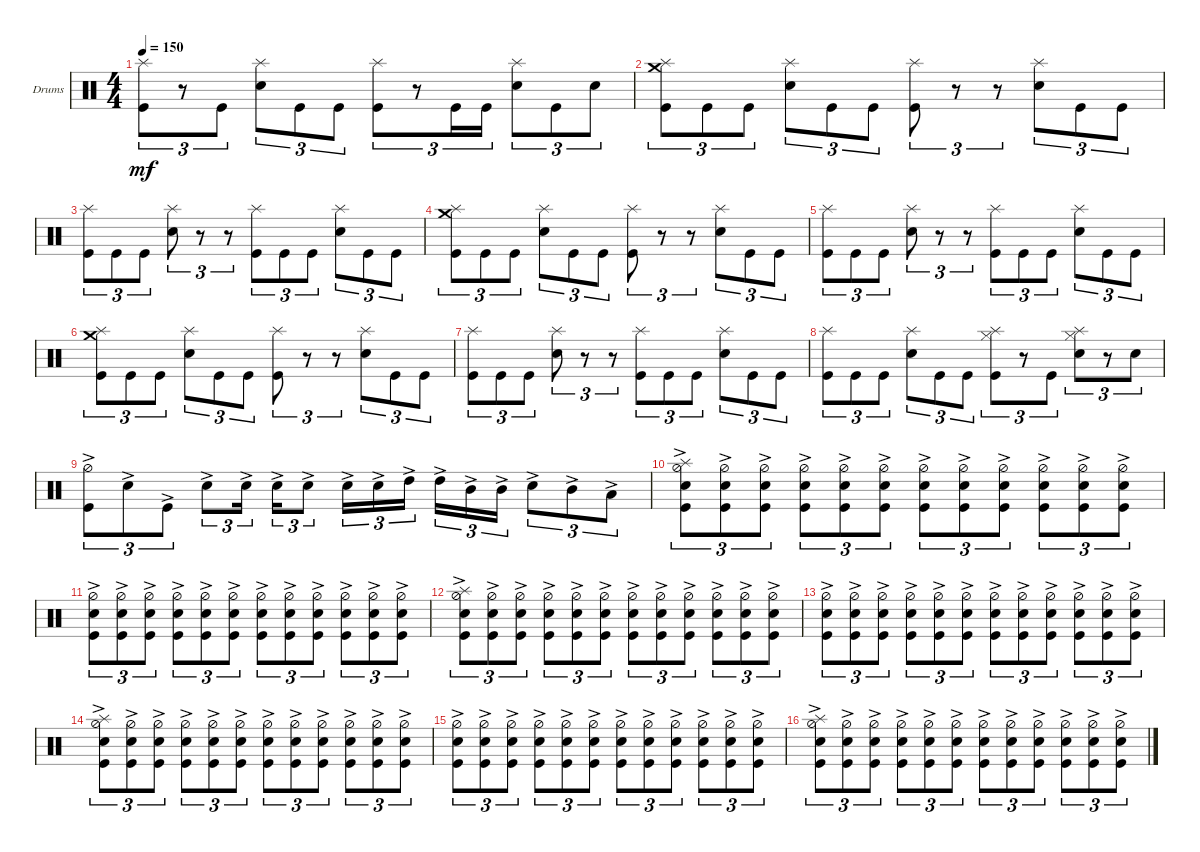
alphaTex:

\bracketExtendMode groupsimilarinstruments
\firstSystemTrackNameOrientation horizontal
\otherSystemsTrackNameOrientation horizontal
\track ("Drumkit" "Drums") {instrument percussion}
\staff {score}
\articulation defaults
\ts (4 4)
\tempo 150
\clef neutral
\ks c
("Kick (hit)" "Splash (hit)").8{tu (3 2) dy mf} r.8{tu (3 2)} "Kick (hit)".8{tu (3 2)} ("Snare (hit) 2" "Splash (hit)").8{tu (3 2)} "Kick (hit)".8{tu (3 2)} "Kick (hit)".8{tu (3 2)} ("Kick (hit)" "Splash (hit)").8{tu (3 2)} r.8{tu (3 2)} "Kick (hit)".16{tu (3 2)} "Kick (hit)".16{tu (3 2)} ("Snare (hit) 2" "Splash (hit)").8{tu (3 2)} "Kick (hit)".8{tu (3 2)} "Snare (hit) 2".8{tu (3 2)} |
("Kick (hit)" "Splash (hit)" "Crash medium (hit)").8{tu (3 2)} "Kick (hit)".8{tu (3 2)} "Kick (hit)".8{tu (3 2)} ("Snare (hit) 2" "Splash (hit)").8{tu (3 2)} "Kick (hit)".8{tu (3 2)} "Kick (hit)".8{tu (3 2)} ("Kick (hit)" "Splash (hit)").8{tu (3 2)} r.8{tu (3 2)} r.8{tu (3 2)} ("Snare (hit) 2" "Splash (hit)").8{tu (3 2)} "Kick (hit)".8{tu (3 2)} "Kick (hit)".8{tu (3 2)} |
("Kick (hit)" "Splash (hit)").8{tu (3 2)} "Kick (hit)".8{tu (3 2)} "Kick (hit)".8{tu (3 2)} ("Snare (hit) 2" "Splash (hit)").8{tu (3 2)} r.8{tu (3 2)} r.8{tu (3 2)} ("Kick (hit)" "Splash (hit)").8{tu (3 2)} "Kick (hit)".8{tu (3 2)} "Kick (hit)".8{tu (3 2)} ("Snare (hit) 2" "Splash (hit)").8{tu (3 2)} "Kick (hit)".8{tu (3 2)} "Kick (hit)".8{tu (3 2)} |
("Kick (hit)" "Splash (hit)" "Crash medium (hit)").8{tu (3 2)} "Kick (hit)".8{tu (3 2)} "Kick (hit)".8{tu (3 2)} ("Snare (hit) 2" "Splash (hit)").8{tu (3 2)} "Kick (hit)".8{tu (3 2)} "Kick (hit)".8{tu (3 2)} ("Kick (hit)" "Splash (hit)").8{tu (3 2)} r.8{tu (3 2)} r.8{tu (3 2)} ("Snare (hit) 2" "Splash (hit)").8{tu (3 2)} "Kick (hit)".8{tu (3 2)} "Kick (hit)".8{tu (3 2)} |
("Kick (hit)" "Splash (hit)").8{tu (3 2)} "Kick (hit)".8{tu (3 2)} "Kick (hit)".8{tu (3 2)} ("Snare (hit) 2" "Splash (hit)").8{tu (3 2)} r.8{tu (3 2)} r.8{tu (3 2)} ("Kick (hit)" "Splash (hit)").8{tu (3 2)} "Kick (hit)".8{tu (3 2)} "Kick (hit)".8{tu (3 2)} ("Snare (hit) 2" "Splash (hit)").8{tu (3 2)} "Kick (hit)".8{tu (3 2)} "Kick (hit)".8{tu (3 2)} |
("Kick (hit)" "Splash (hit)" "Crash medium (hit)").8{tu (3 2)} "Kick (hit)".8{tu (3 2)} "Kick (hit)".8{tu (3 2)} ("Snare (hit) 2" "Splash (hit)").8{tu (3 2)} "Kick (hit)".8{tu (3 2)} "Kick (hit)".8{tu (3 2)} ("Kick (hit)" "Splash (hit)").8{tu (3 2)} r.8{tu (3 2)} r.8{tu (3 2)} ("Snare (hit) 2" "Splash (hit)").8{tu (3 2)} "Kick (hit)".8{tu (3 2)} "Kick (hit)".8{tu (3 2)} |
("Kick (hit)" "Splash (hit)").8{tu (3 2)} "Kick (hit)".8{tu (3 2)} "Kick (hit)".8{tu (3 2)} ("Snare (hit) 2" "Splash (hit)").8{tu (3 2)} r.8{tu (3 2)} r.8{tu (3 2)} ("Kick (hit)" "Splash (hit)").8{tu (3 2)} "Kick (hit)".8{tu (3 2)} "Kick (hit)".8{tu (3 2)} ("Snare (hit) 2" "Splash (hit)").8{tu (3 2)} "Kick (hit)".8{tu (3 2)} "Kick (hit)".8{tu (3 2)} |
("Kick (hit)" "Splash (hit)").8{tu (3 2)} "Kick (hit)".8{tu (3 2)} "Kick (hit)".8{tu (3 2)} ("Snare (hit) 2" "Splash (hit)").8{tu (3 2)} "Kick (hit)".8{tu (3 2)} "Kick (hit)".8{tu (3 2)} ("Kick (hit)" "Hi-Hat (closed)" "Splash (hit)").8{tu (3 2)} r.8{tu (3 2)} "Kick (hit)".8{tu (3 2)} ("Snare (hit) 2" "Hi-Hat (closed)" "Splash (hit)").8{tu (3 2)} r.8{tu (3 2)} "Snare (hit) 2".8{tu (3 2)} |
("Kick (hit)"{ac} "Hi-Hat (half)").8{tu (3 2)} "Snare (hit) 2"{ac}.8{tu (3 2)} "Kick (hit)"{ac}.8{tu (3 2)} "Snare (hit) 2"{ac}.8{tu (3 2)} "Snare (hit) 2"{ac}.16{tu (3 2)} "Snare (hit) 2"{ac}.16{tu (3 2)} "Snare (hit) 2"{ac}.8{tu (3 2)} "Snare (hit) 2"{ac}.16{tu (3 2)} "Snare (hit) 2"{ac}.16{tu (3 2)} "High Tom (hit)"{ac}.16{tu (3 2)} "High Tom (hit)"{ac}.16{tu (3 2)} "Mid Tom (hit)"{ac}.16{tu (3 2)} "Mid Tom (hit)"{ac}.16{tu (3 2)} "Snare (hit) 2"{ac}.8{tu (3 2)} "Mid Tom (hit)"{ac}.8{tu (3 2)} "Low Tom (hit)"{ac}.8{tu (3 2)} |
("Hi-Hat (half)"{ac} "Kick (hit)"{ac} "Snare (hit) 2"{ac} "Splash (hit)").8{tu (3 2)} ("Hi-Hat (half)"{ac} "Kick (hit)"{ac} "Snare (hit) 2"{ac}).8{tu (3 2)} ("Hi-Hat (half)"{ac} "Kick (hit)"{ac} "Snare (hit) 2"{ac}).8{tu (3 2)} ("Hi-Hat (half)"{ac} "Kick (hit)"{ac} "Snare (hit) 2"{ac}).8{tu (3 2)} ("Hi-Hat (half)"{ac} "Kick (hit)"{ac} "Snare (hit) 2"{ac}).8{tu (3 2)} ("Hi-Hat (half)"{ac} "Kick (hit)"{ac} "Snare (hit) 2"{ac}).8{tu (3 2)} ("Hi-Hat (half)"{ac} "Kick (hit)"{ac} "Snare (hit) 2"{ac}).8{tu (3 2)} ("Hi-Hat (half)"{ac} "Kick (hit)"{ac} "Snare (hit) 2"{ac}).8{tu (3 2)} ("Hi-Hat (half)"{ac} "Kick (hit)"{ac} "Snare (hit) 2"{ac}).8{tu (3 2)} ("Hi-Hat (half)"{ac} "Kick (hit)"{ac} "Snare (hit) 2"{ac}).8{tu (3 2)} ("Hi-Hat (half)"{ac} "Kick (hit)"{ac} "Snare (hit) 2"{ac}).8{tu (3 2)} ("Hi-Hat (half)"{ac} "Kick (hit)"{ac} "Snare (hit) 2"{ac}).8{tu (3 2)} |
("Hi-Hat (half)"{ac} "Kick (hit)"{ac} "Snare (hit) 2"{ac}).8{tu (3 2)} ("Hi-Hat (half)"{ac} "Kick (hit)"{ac} "Snare (hit) 2"{ac}).8{tu (3 2)} ("Hi-Hat (half)"{ac} "Kick (hit)"{ac} "Snare (hit) 2"{ac}).8{tu (3 2)} ("Hi-Hat (half)"{ac} "Kick (hit)"{ac} "Snare (hit) 2"{ac}).8{tu (3 2)} ("Hi-Hat (half)"{ac} "Kick (hit)"{ac} "Snare (hit) 2"{ac}).8{tu (3 2)} ("Hi-Hat (half)"{ac} "Kick (hit)"{ac} "Snare (hit) 2"{ac}).8{tu (3 2)} ("Hi-Hat (half)"{ac} "Kick (hit)"{ac} "Snare (hit) 2"{ac}).8{tu (3 2)} ("Hi-Hat (half)"{ac} "Kick (hit)"{ac} "Snare (hit) 2"{ac}).8{tu (3 2)} ("Hi-Hat (half)"{ac} "Kick (hit)"{ac} "Snare (hit) 2"{ac}).8{tu (3 2)} ("Hi-Hat (half)"{ac} "Kick (hit)"{ac} "Snare (hit) 2"{ac}).8{tu (3 2)} ("Hi-Hat (half)"{ac} "Kick (hit)"{ac} "Snare (hit) 2"{ac}).8{tu (3 2)} ("Hi-Hat (half)"{ac} "Kick (hit)"{ac} "Snare (hit) 2"{ac}).8{tu (3 2)} |
("Hi-Hat (half)"{ac} "Kick (hit)"{ac} "Snare (hit) 2"{ac} "Splash (hit)").8{tu (3 2)} ("Hi-Hat (half)"{ac} "Kick (hit)"{ac} "Snare (hit) 2"{ac}).8{tu (3 2)} ("Hi-Hat (half)"{ac} "Kick (hit)"{ac} "Snare (hit) 2"{ac}).8{tu (3 2)} ("Hi-Hat (half)"{ac} "Kick (hit)"{ac} "Snare (hit) 2"{ac}).8{tu (3 2)} ("Hi-Hat (half)"{ac} "Kick (hit)"{ac} "Snare (hit) 2"{ac}).8{tu (3 2)} ("Hi-Hat (half)"{ac} "Kick (hit)"{ac} "Snare (hit) 2"{ac}).8{tu (3 2)} ("Hi-Hat (half)"{ac} "Kick (hit)"{ac} "Snare (hit) 2"{ac}).8{tu (3 2)} ("Hi-Hat (half)"{ac} "Kick (hit)"{ac} "Snare (hit) 2"{ac}).8{tu (3 2)} ("Hi-Hat (half)"{ac} "Kick (hit)"{ac} "Snare (hit) 2"{ac}).8{tu (3 2)} ("Hi-Hat (half)"{ac} "Kick (hit)"{ac} "Snare (hit) 2"{ac}).8{tu (3 2)} ("Hi-Hat (half)"{ac} "Kick (hit)"{ac} "Snare (hit) 2"{ac}).8{tu (3 2)} ("Hi-Hat (half)"{ac} "Kick (hit)"{ac} "Snare (hit) 2"{ac}).8{tu (3 2)} |
("Hi-Hat (half)"{ac} "Kick (hit)"{ac} "Snare (hit) 2"{ac}).8{tu (3 2)} ("Hi-Hat (half)"{ac} "Kick (hit)"{ac} "Snare (hit) 2"{ac}).8{tu (3 2)} ("Hi-Hat (half)"{ac} "Kick (hit)"{ac} "Snare (hit) 2"{ac}).8{tu (3 2)} ("Hi-Hat (half)"{ac} "Kick (hit)"{ac} "Snare (hit) 2"{ac}).8{tu (3 2)} ("Hi-Hat (half)"{ac} "Kick (hit)"{ac} "Snare (hit) 2"{ac}).8{tu (3 2)} ("Hi-Hat (half)"{ac} "Kick (hit)"{ac} "Snare (hit) 2"{ac}).8{tu (3 2)} ("Hi-Hat (half)"{ac} "Kick (hit)"{ac} "Snare (hit) 2"{ac}).8{tu (3 2)} ("Hi-Hat (half)"{ac} "Kick (hit)"{ac} "Snare (hit) 2"{ac}).8{tu (3 2)} ("Hi-Hat (half)"{ac} "Kick (hit)"{ac} "Snare (hit) 2"{ac}).8{tu (3 2)} ("Hi-Hat (half)"{ac} "Kick (hit)"{ac} "Snare (hit) 2"{ac}).8{tu (3 2)} ("Hi-Hat (half)"{ac} "Kick (hit)"{ac} "Snare (hit) 2"{ac}).8{tu (3 2)} ("Hi-Hat (half)"{ac} "Kick (hit)"{ac} "Snare (hit) 2"{ac}).8{tu (3 2)} |
("Hi-Hat (half)"{ac} "Kick (hit)"{ac} "Snare (hit) 2"{ac} "Splash (hit)").8{tu (3 2)} ("Hi-Hat (half)"{ac} "Kick (hit)"{ac} "Snare (hit) 2"{ac}).8{tu (3 2)} ("Hi-Hat (half)"{ac} "Kick (hit)"{ac} "Snare (hit) 2"{ac}).8{tu (3 2)} ("Hi-Hat (half)"{ac} "Kick (hit)"{ac} "Snare (hit) 2"{ac}).8{tu (3 2)} ("Hi-Hat (half)"{ac} "Kick (hit)"{ac} "Snare (hit) 2"{ac}).8{tu (3 2)} ("Hi-Hat (half)"{ac} "Kick (hit)"{ac} "Snare (hit) 2"{ac}).8{tu (3 2)} ("Hi-Hat (half)"{ac} "Kick (hit)"{ac} "Snare (hit) 2"{ac}).8{tu (3 2)} ("Hi-Hat (half)"{ac} "Kick (hit)"{ac} "Snare (hit) 2"{ac}).8{tu (3 2)} ("Hi-Hat (half)"{ac} "Kick (hit)"{ac} "Snare (hit) 2"{ac}).8{tu (3 2)} ("Hi-Hat (half)"{ac} "Kick (hit)"{ac} "Snare (hit) 2"{ac}).8{tu (3 2)} ("Hi-Hat (half)"{ac} "Kick (hit)"{ac} "Snare (hit) 2"{ac}).8{tu (3 2)} ("Hi-Hat (half)"{ac} "Kick (hit)"{ac} "Snare (hit) 2"{ac}).8{tu (3 2)} |
("Hi-Hat (half)"{ac} "Kick (hit)"{ac} "Snare (hit) 2"{ac}).8{tu (3 2)} ("Hi-Hat (half)"{ac} "Kick (hit)"{ac} "Snare (hit) 2"{ac}).8{tu (3 2)} ("Hi-Hat (half)"{ac} "Kick (hit)"{ac} "Snare (hit) 2"{ac}).8{tu (3 2)} ("Hi-Hat (half)"{ac} "Kick (hit)"{ac} "Snare (hit) 2"{ac}).8{tu (3 2)} ("Hi-Hat (half)"{ac} "Kick (hit)"{ac} "Snare (hit) 2"{ac}).8{tu (3 2)} ("Hi-Hat (half)"{ac} "Kick (hit)"{ac} "Snare (hit) 2"{ac}).8{tu (3 2)} ("Hi-Hat (half)"{ac} "Kick (hit)"{ac} "Snare (hit) 2"{ac}).8{tu (3 2)} ("Hi-Hat (half)"{ac} "Kick (hit)"{ac} "Snare (hit) 2"{ac}).8{tu (3 2)} ("Hi-Hat (half)"{ac} "Kick (hit)"{ac} "Snare (hit) 2"{ac}).8{tu (3 2)} ("Hi-Hat (half)"{ac} "Kick (hit)"{ac} "Snare (hit) 2"{ac}).8{tu (3 2)} ("Hi-Hat (half)"{ac} "Kick (hit)"{ac} "Snare (hit) 2"{ac}).8{tu (3 2)} ("Hi-Hat (half)"{ac} "Kick (hit)"{ac} "Snare (hit) 2"{ac}).8{tu (3 2)} |
("Hi-Hat (half)"{ac} "Kick (hit)"{ac} "Snare (hit) 2"{ac} "Splash (hit)").8{tu (3 2)} ("Hi-Hat (half)"{ac} "Kick (hit)"{ac} "Snare (hit) 2"{ac}).8{tu (3 2)} ("Hi-Hat (half)"{ac} "Kick (hit)"{ac} "Snare (hit) 2"{ac}).8{tu (3 2)} ("Hi-Hat (half)"{ac} "Kick (hit)"{ac} "Snare (hit) 2"{ac}).8{tu (3 2)} ("Hi-Hat (half)"{ac} "Kick (hit)"{ac} "Snare (hit) 2"{ac}).8{tu (3 2)} ("Hi-Hat (half)"{ac} "Kick (hit)"{ac} "Snare (hit) 2"{ac}).8{tu (3 2)} ("Hi-Hat (half)"{ac} "Kick (hit)"{ac} "Snare (hit) 2"{ac}).8{tu (3 2)} ("Hi-Hat (half)"{ac} "Kick (hit)"{ac} "Snare (hit) 2"{ac}).8{tu (3 2)} ("Hi-Hat (half)"{ac} "Kick (hit)"{ac} "Snare (hit) 2"{ac}).8{tu (3 2)} ("Hi-Hat (half)"{ac} "Kick (hit)"{ac} "Snare (hit) 2"{ac}).8{tu (3 2)} ("Hi-Hat (half)"{ac} "Kick (hit)"{ac} "Snare (hit) 2"{ac}).8{tu (3 2)} ("Hi-Hat (half)"{ac} "Kick (hit)"{ac} "Snare (hit) 2"{ac}).8{tu (3 2)}
